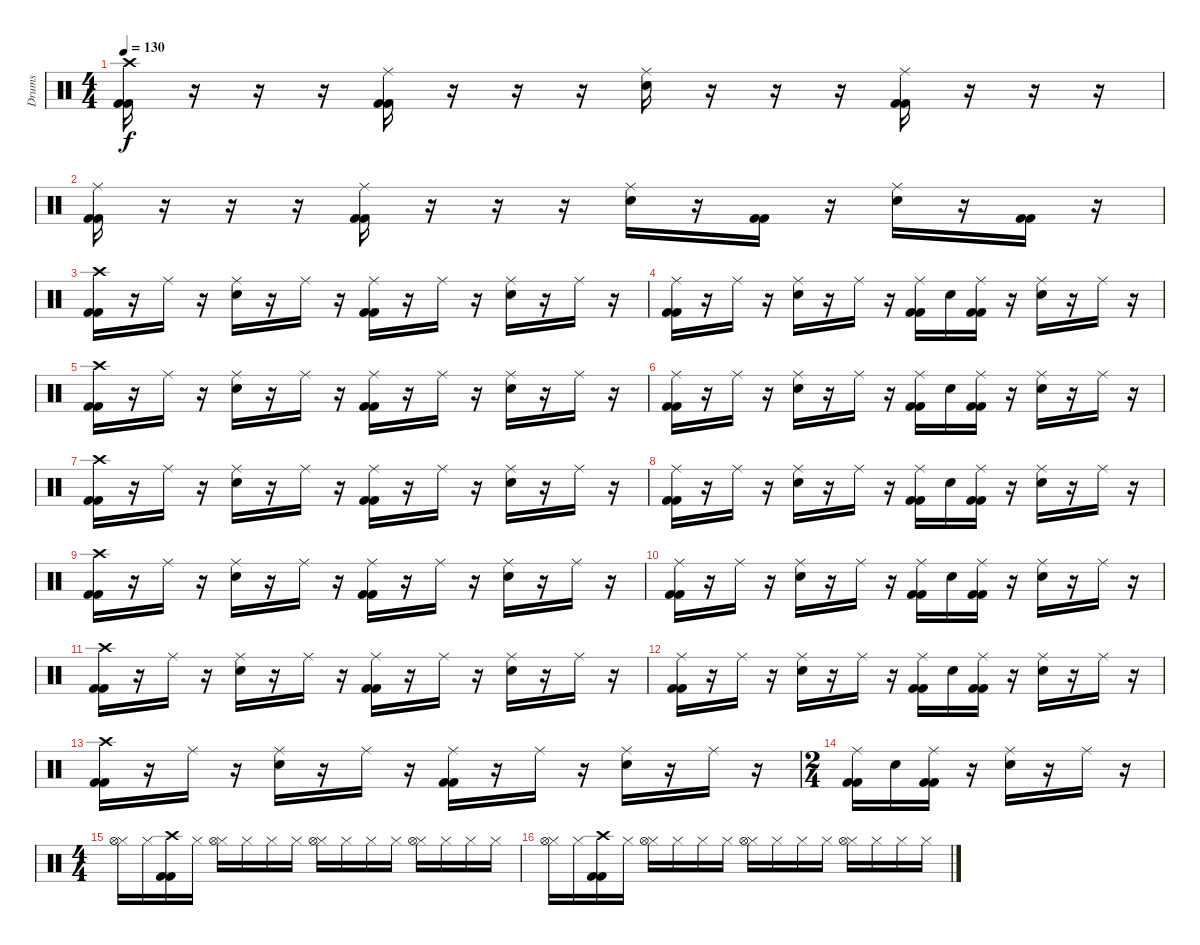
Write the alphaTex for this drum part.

\track ("Drums" "Drums") {instrument percussion}
\staff {score}
\articulation defaults
\ts (4 4)
\tempo 130
\clef neutral
\ks c
("Crash high (hit)" "Kick (hit) 2" "Kick (hit) 2").16{dy f} r.16 r.16 r.16 ("Ride (middle)" "Kick (hit) 2" "Kick (hit) 2").16 r.16 r.16 r.16 ("Ride (middle)" "Electric Snare (hit)").16 r.16 r.16 r.16 ("Ride (middle)" "Kick (hit) 2" "Kick (hit) 2").16 r.16 r.16 r.16 |
("Ride (middle)" "Kick (hit) 2" "Kick (hit) 2").16 r.16 r.16 r.16 ("Ride (middle)" "Kick (hit) 2" "Kick (hit) 2").16 r.16 r.16 r.16 ("Ride (middle)" "Electric Snare (hit)").16 r.16 ("Kick (hit) 2" "Kick (hit) 2").16 r.16 ("Ride (middle)" "Electric Snare (hit)").16 r.16 ("Kick (hit) 2" "Kick (hit) 2").16 r.16 |
("Crash high (hit)" "Kick (hit) 2" "Kick (hit) 2").16 r.16 "Ride (middle)".16 r.16 ("Ride (middle)" "Electric Snare (hit)").16 r.16 "Ride (middle)".16 r.16 ("Ride (middle)" "Kick (hit) 2" "Kick (hit) 2").16 r.16 "Ride (middle)".16 r.16 ("Ride (middle)" "Electric Snare (hit)").16 r.16 "Ride (middle)".16 r.16 |
("Ride (middle)" "Kick (hit) 2" "Kick (hit) 2").16 r.16 "Ride (middle)".16 r.16 ("Ride (middle)" "Electric Snare (hit)").16 r.16 "Ride (middle)".16 r.16 ("Ride (middle)" "Kick (hit) 2" "Kick (hit) 2").16 "Electric Snare (hit)".16 ("Ride (middle)" "Kick (hit) 2" "Kick (hit) 2").16 r.16 ("Ride (middle)" "Electric Snare (hit)").16 r.16 "Ride (middle)".16 r.16 |
("Crash high (hit)" "Kick (hit) 2" "Kick (hit) 2").16 r.16 "Ride (middle)".16 r.16 ("Ride (middle)" "Electric Snare (hit)").16 r.16 "Ride (middle)".16 r.16 ("Ride (middle)" "Kick (hit) 2" "Kick (hit) 2").16 r.16 "Ride (middle)".16 r.16 ("Ride (middle)" "Electric Snare (hit)").16 r.16 "Ride (middle)".16 r.16 |
("Ride (middle)" "Kick (hit) 2" "Kick (hit) 2").16 r.16 "Ride (middle)".16 r.16 ("Ride (middle)" "Electric Snare (hit)").16 r.16 "Ride (middle)".16 r.16 ("Ride (middle)" "Kick (hit) 2" "Kick (hit) 2").16 "Electric Snare (hit)".16 ("Ride (middle)" "Kick (hit) 2" "Kick (hit) 2").16 r.16 ("Ride (middle)" "Electric Snare (hit)").16 r.16 "Ride (middle)".16 r.16 |
("Crash high (hit)" "Kick (hit) 2" "Kick (hit) 2").16 r.16 "Ride (middle)".16 r.16 ("Ride (middle)" "Electric Snare (hit)").16 r.16 "Ride (middle)".16 r.16 ("Ride (middle)" "Kick (hit) 2" "Kick (hit) 2").16 r.16 "Ride (middle)".16 r.16 ("Ride (middle)" "Electric Snare (hit)").16 r.16 "Ride (middle)".16 r.16 |
("Ride (middle)" "Kick (hit) 2" "Kick (hit) 2").16 r.16 "Ride (middle)".16 r.16 ("Ride (middle)" "Electric Snare (hit)").16 r.16 "Ride (middle)".16 r.16 ("Ride (middle)" "Kick (hit) 2" "Kick (hit) 2").16 "Electric Snare (hit)".16 ("Ride (middle)" "Kick (hit) 2" "Kick (hit) 2").16 r.16 ("Ride (middle)" "Electric Snare (hit)").16 r.16 "Ride (middle)".16 r.16 |
("Crash high (hit)" "Kick (hit) 2" "Kick (hit) 2").16 r.16 "Ride (middle)".16 r.16 ("Ride (middle)" "Electric Snare (hit)").16 r.16 "Ride (middle)".16 r.16 ("Ride (middle)" "Kick (hit) 2" "Kick (hit) 2").16 r.16 "Ride (middle)".16 r.16 ("Ride (middle)" "Electric Snare (hit)").16 r.16 "Ride (middle)".16 r.16 |
("Ride (middle)" "Kick (hit) 2" "Kick (hit) 2").16 r.16 "Ride (middle)".16 r.16 ("Ride (middle)" "Electric Snare (hit)").16 r.16 "Ride (middle)".16 r.16 ("Ride (middle)" "Kick (hit) 2" "Kick (hit) 2").16 "Electric Snare (hit)".16 ("Ride (middle)" "Kick (hit) 2" "Kick (hit) 2").16 r.16 ("Ride (middle)" "Electric Snare (hit)").16 r.16 "Ride (middle)".16 r.16 |
("Crash high (hit)" "Kick (hit) 2" "Kick (hit) 2").16 r.16 "Ride (middle)".16 r.16 ("Ride (middle)" "Electric Snare (hit)").16 r.16 "Ride (middle)".16 r.16 ("Ride (middle)" "Kick (hit) 2" "Kick (hit) 2").16 r.16 "Ride (middle)".16 r.16 ("Ride (middle)" "Electric Snare (hit)").16 r.16 "Ride (middle)".16 r.16 |
("Ride (middle)" "Kick (hit) 2" "Kick (hit) 2").16 r.16 "Ride (middle)".16 r.16 ("Ride (middle)" "Electric Snare (hit)").16 r.16 "Ride (middle)".16 r.16 ("Ride (middle)" "Kick (hit) 2" "Kick (hit) 2").16 "Electric Snare (hit)".16 ("Ride (middle)" "Kick (hit) 2" "Kick (hit) 2").16 r.16 ("Ride (middle)" "Electric Snare (hit)").16 r.16 "Ride (middle)".16 r.16 |
("Crash high (hit)" "Kick (hit) 2" "Kick (hit) 2").16 r.16 "Ride (middle)".16 r.16 ("Ride (middle)" "Electric Snare (hit)").16 r.16 "Ride (middle)".16 r.16 ("Ride (middle)" "Kick (hit) 2" "Kick (hit) 2").16 r.16 "Ride (middle)".16 r.16 ("Ride (middle)" "Electric Snare (hit)").16 r.16 "Ride (middle)".16 r.16 |
\ts (2 4)
("Ride (middle)" "Kick (hit) 2" "Kick (hit) 2").16 "Electric Snare (hit)".16 ("Ride (middle)" "Kick (hit) 2" "Kick (hit) 2").16 r.16 ("Ride (middle)" "Electric Snare (hit)").16 r.16 "Ride (middle)".16 r.16 |
\ts (4 4)
("Hi-Hat (closed)" "Hi-Hat (open)").16 "Hi-Hat (closed)".16 ("Crash high (hit)" "Kick (hit) 2" "Kick (hit) 2").16 "Hi-Hat (closed)".16 ("Hi-Hat (closed)" "Hi-Hat (open)").16 "Hi-Hat (closed)".16 "Hi-Hat (closed)".16 "Hi-Hat (closed)".16 ("Hi-Hat (closed)" "Hi-Hat (open)").16 "Hi-Hat (closed)".16 "Hi-Hat (closed)".16 "Hi-Hat (closed)".16 ("Hi-Hat (closed)" "Hi-Hat (open)").16 "Hi-Hat (closed)".16 "Hi-Hat (closed)".16 "Hi-Hat (closed)".16 |
("Hi-Hat (closed)" "Hi-Hat (open)").16 "Hi-Hat (closed)".16 ("Crash high (hit)" "Kick (hit) 2" "Kick (hit) 2").16 "Hi-Hat (closed)".16 ("Hi-Hat (closed)" "Hi-Hat (open)").16 "Hi-Hat (closed)".16 "Hi-Hat (closed)".16 "Hi-Hat (closed)".16 ("Hi-Hat (closed)" "Hi-Hat (open)").16 "Hi-Hat (closed)".16 "Hi-Hat (closed)".16 "Hi-Hat (closed)".16 ("Hi-Hat (closed)" "Hi-Hat (open)").16 "Hi-Hat (closed)".16 "Hi-Hat (closed)".16 "Hi-Hat (closed)".16
